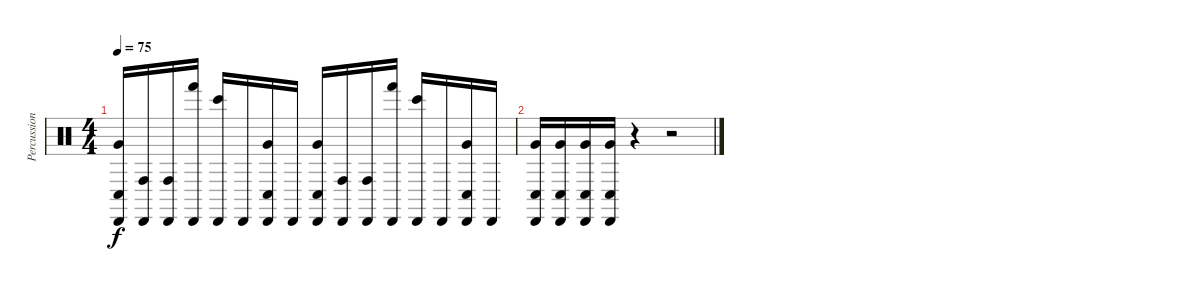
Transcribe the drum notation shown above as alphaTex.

\track ("Percussions" "Percussion") {instrument percussion}
\staff {score}
\articulation defaults
\ts (4 4)
\tempo 75
\clef neutral
\ks c
("Conga low (hit)" "Very Low Tom (hit)" "Cabasa (hit)").16{dy f} ("Conga high (hit)" "Cabasa (hit)").16 ("Conga high (hit)" "Cabasa (hit)").16 ("Hand (hit)" "Cabasa (hit)").16 ("Bongo High (hit)" "Cabasa (hit)").16 "Cabasa (hit)".16 ("Conga low (hit)" "Very Low Tom (hit)" "Cabasa (hit)").16 "Cabasa (hit)".16 ("Conga low (hit)" "Very Low Tom (hit)" "Cabasa (hit)").16 ("Conga high (hit)" "Cabasa (hit)").16 ("Conga high (hit)" "Cabasa (hit)").16 ("Hand (hit)" "Cabasa (hit)").16 ("Bongo High (hit)" "Cabasa (hit)").16 "Cabasa (hit)".16 ("Conga low (hit)" "Very Low Tom (hit)" "Cabasa (hit)").16 "Cabasa (hit)".16 |
("Conga low (hit)" "Very Low Tom (hit)" "Cabasa (hit)").16 ("Conga low (hit)" "Very Low Tom (hit)" "Cabasa (hit)").16 ("Conga low (hit)" "Very Low Tom (hit)" "Cabasa (hit)").16 ("Conga low (hit)" "Very Low Tom (hit)" "Cabasa (hit)").16 r.4 r.2
